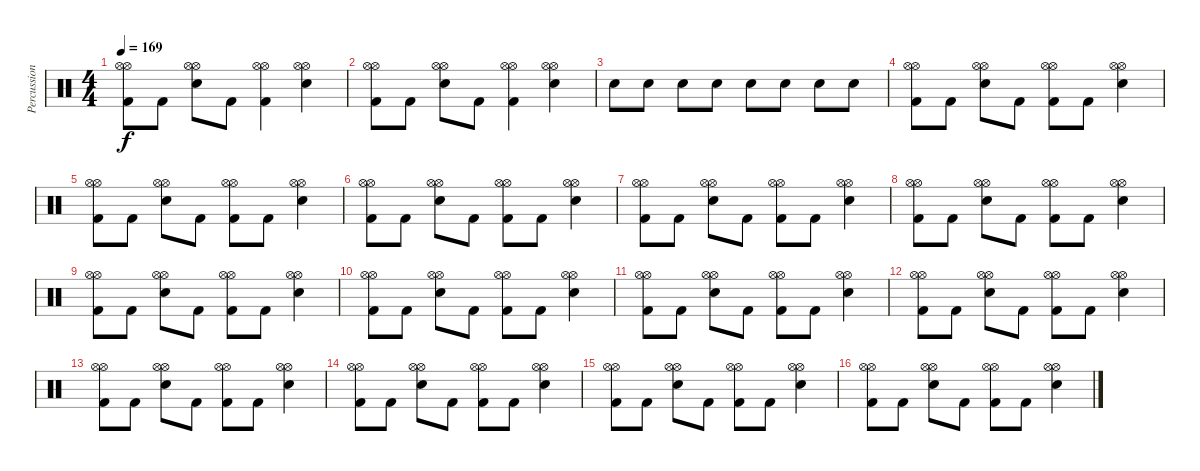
\track ("Percussion" "Percussion") {instrument percussion}
\staff {score}
\articulation defaults
\ts (4 4)
\tempo 169
\clef neutral
\ks c
("Hi-Hat (open)" "Hi-Hat (open)" "Kick (hit) 2").8{dy f} "Kick (hit) 2".8 ("Hi-Hat (open)" "Hi-Hat (open)" "Snare (hit) 2").8 "Kick (hit) 2".8 ("Hi-Hat (open)" "Hi-Hat (open)" "Kick (hit) 2").4 ("Hi-Hat (open)" "Hi-Hat (open)" "Snare (hit) 2").4 |
("Hi-Hat (open)" "Hi-Hat (open)" "Kick (hit) 2").8 "Kick (hit) 2".8 ("Hi-Hat (open)" "Hi-Hat (open)" "Snare (hit) 2").8 "Kick (hit) 2".8 ("Hi-Hat (open)" "Hi-Hat (open)" "Kick (hit) 2").4 ("Hi-Hat (open)" "Hi-Hat (open)" "Snare (hit) 2").4 |
"Snare (hit) 2".8 "Snare (hit) 2".8 "Snare (hit) 2".8 "Snare (hit) 2".8 "Snare (hit) 2".8 "Snare (hit) 2".8 "Snare (hit) 2".8 "Snare (hit) 2".8 |
("Hi-Hat (open)" "Hi-Hat (open)" "Kick (hit) 2").8 "Kick (hit) 2".8 ("Hi-Hat (open)" "Hi-Hat (open)" "Snare (hit) 2").8 "Kick (hit) 2".8 ("Hi-Hat (open)" "Hi-Hat (open)" "Kick (hit) 2").8 "Kick (hit) 2".8 ("Hi-Hat (open)" "Hi-Hat (open)" "Snare (hit) 2").4 |
("Hi-Hat (open)" "Hi-Hat (open)" "Kick (hit) 2").8 "Kick (hit) 2".8 ("Hi-Hat (open)" "Hi-Hat (open)" "Snare (hit) 2").8 "Kick (hit) 2".8 ("Hi-Hat (open)" "Hi-Hat (open)" "Kick (hit) 2").8 "Kick (hit) 2".8 ("Hi-Hat (open)" "Hi-Hat (open)" "Snare (hit) 2").4 |
("Hi-Hat (open)" "Hi-Hat (open)" "Kick (hit) 2").8 "Kick (hit) 2".8 ("Hi-Hat (open)" "Hi-Hat (open)" "Snare (hit) 2").8 "Kick (hit) 2".8 ("Hi-Hat (open)" "Hi-Hat (open)" "Kick (hit) 2").8 "Kick (hit) 2".8 ("Hi-Hat (open)" "Hi-Hat (open)" "Snare (hit) 2").4 |
("Hi-Hat (open)" "Hi-Hat (open)" "Kick (hit) 2").8 "Kick (hit) 2".8 ("Hi-Hat (open)" "Hi-Hat (open)" "Snare (hit) 2").8 "Kick (hit) 2".8 ("Hi-Hat (open)" "Hi-Hat (open)" "Kick (hit) 2").8 "Kick (hit) 2".8 ("Hi-Hat (open)" "Hi-Hat (open)" "Snare (hit) 2").4 |
("Hi-Hat (open)" "Hi-Hat (open)" "Kick (hit) 2").8 "Kick (hit) 2".8 ("Hi-Hat (open)" "Hi-Hat (open)" "Snare (hit) 2").8 "Kick (hit) 2".8 ("Hi-Hat (open)" "Hi-Hat (open)" "Kick (hit) 2").8 "Kick (hit) 2".8 ("Hi-Hat (open)" "Hi-Hat (open)" "Snare (hit) 2").4 |
("Hi-Hat (open)" "Hi-Hat (open)" "Kick (hit) 2").8 "Kick (hit) 2".8 ("Hi-Hat (open)" "Hi-Hat (open)" "Snare (hit) 2").8 "Kick (hit) 2".8 ("Hi-Hat (open)" "Hi-Hat (open)" "Kick (hit) 2").8 "Kick (hit) 2".8 ("Hi-Hat (open)" "Hi-Hat (open)" "Snare (hit) 2").4 |
("Hi-Hat (open)" "Hi-Hat (open)" "Kick (hit) 2").8 "Kick (hit) 2".8 ("Hi-Hat (open)" "Hi-Hat (open)" "Snare (hit) 2").8 "Kick (hit) 2".8 ("Hi-Hat (open)" "Hi-Hat (open)" "Kick (hit) 2").8 "Kick (hit) 2".8 ("Hi-Hat (open)" "Hi-Hat (open)" "Snare (hit) 2").4 |
("Hi-Hat (open)" "Hi-Hat (open)" "Kick (hit) 2").8 "Kick (hit) 2".8 ("Hi-Hat (open)" "Hi-Hat (open)" "Snare (hit) 2").8 "Kick (hit) 2".8 ("Hi-Hat (open)" "Hi-Hat (open)" "Kick (hit) 2").8 "Kick (hit) 2".8 ("Hi-Hat (open)" "Hi-Hat (open)" "Snare (hit) 2").4 |
("Hi-Hat (open)" "Hi-Hat (open)" "Kick (hit) 2").8 "Kick (hit) 2".8 ("Hi-Hat (open)" "Hi-Hat (open)" "Snare (hit) 2").8 "Kick (hit) 2".8 ("Hi-Hat (open)" "Hi-Hat (open)" "Kick (hit) 2").8 "Kick (hit) 2".8 ("Hi-Hat (open)" "Hi-Hat (open)" "Snare (hit) 2").4 |
("Hi-Hat (open)" "Hi-Hat (open)" "Kick (hit) 2").8 "Kick (hit) 2".8 ("Hi-Hat (open)" "Hi-Hat (open)" "Snare (hit) 2").8 "Kick (hit) 2".8 ("Hi-Hat (open)" "Hi-Hat (open)" "Kick (hit) 2").8 "Kick (hit) 2".8 ("Hi-Hat (open)" "Hi-Hat (open)" "Snare (hit) 2").4 |
("Hi-Hat (open)" "Hi-Hat (open)" "Kick (hit) 2").8 "Kick (hit) 2".8 ("Hi-Hat (open)" "Hi-Hat (open)" "Snare (hit) 2").8 "Kick (hit) 2".8 ("Hi-Hat (open)" "Hi-Hat (open)" "Kick (hit) 2").8 "Kick (hit) 2".8 ("Hi-Hat (open)" "Hi-Hat (open)" "Snare (hit) 2").4 |
("Hi-Hat (open)" "Hi-Hat (open)" "Kick (hit) 2").8 "Kick (hit) 2".8 ("Hi-Hat (open)" "Hi-Hat (open)" "Snare (hit) 2").8 "Kick (hit) 2".8 ("Hi-Hat (open)" "Hi-Hat (open)" "Kick (hit) 2").8 "Kick (hit) 2".8 ("Hi-Hat (open)" "Hi-Hat (open)" "Snare (hit) 2").4 |
("Hi-Hat (open)" "Hi-Hat (open)" "Kick (hit) 2").8 "Kick (hit) 2".8 ("Hi-Hat (open)" "Hi-Hat (open)" "Snare (hit) 2").8 "Kick (hit) 2".8 ("Hi-Hat (open)" "Hi-Hat (open)" "Kick (hit) 2").8 "Kick (hit) 2".8 ("Hi-Hat (open)" "Hi-Hat (open)" "Snare (hit) 2").4
